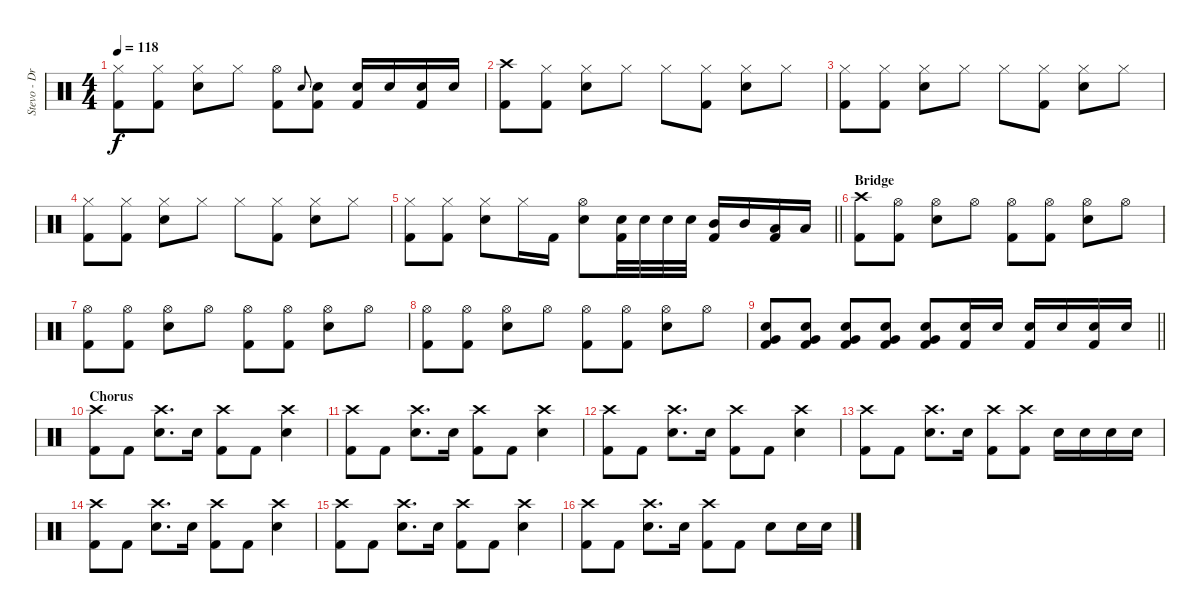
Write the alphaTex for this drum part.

\track ("Stevo - Drums" "Stevo - Dr") {instrument percussion}
\staff {score}
\articulation defaults
\ts (4 4)
\tempo 118
\clef neutral
\ks c
("Hi-Hat (closed)" "Kick (hit) 2").8{dy f} ("Hi-Hat (closed)" "Kick (hit) 2").8 ("Hi-Hat (closed)" "Snare (hit) 2").8 "Hi-Hat (closed)".8 ("Hi-Hat (open)" "Kick (hit) 2").8 "Snare (hit) 2".8{gr onbeat} ("Snare (hit) 2" "Kick (hit) 2").8 ("Snare (hit) 2" "Kick (hit) 2").16 "Snare (hit) 2".16 ("Snare (hit) 2" "Kick (hit) 2").16 "Snare (hit) 2".16 |
("Crash high (hit)" "Kick (hit) 2").8 ("Hi-Hat (closed)" "Kick (hit) 2").8 ("Hi-Hat (closed)" "Snare (hit) 2").8 "Hi-Hat (closed)".8 "Hi-Hat (closed)".8 ("Hi-Hat (closed)" "Kick (hit) 2").8 ("Hi-Hat (closed)" "Snare (hit) 2").8 "Hi-Hat (closed)".8 |
("Hi-Hat (closed)" "Kick (hit) 2").8 ("Hi-Hat (closed)" "Kick (hit) 2").8 ("Hi-Hat (closed)" "Snare (hit) 2").8 "Hi-Hat (closed)".8 "Hi-Hat (closed)".8 ("Hi-Hat (closed)" "Kick (hit) 2").8 ("Hi-Hat (closed)" "Snare (hit) 2").8 "Hi-Hat (closed)".8 |
("Hi-Hat (closed)" "Kick (hit) 2").8 ("Hi-Hat (closed)" "Kick (hit) 2").8 ("Hi-Hat (closed)" "Snare (hit) 2").8 "Hi-Hat (closed)".8 "Hi-Hat (closed)".8 ("Hi-Hat (closed)" "Kick (hit) 2").8 ("Hi-Hat (closed)" "Snare (hit) 2").8 "Hi-Hat (closed)".8 |
\barLineRight lightlight
("Hi-Hat (closed)" "Kick (hit) 2").8 ("Hi-Hat (closed)" "Kick (hit) 2").8 ("Hi-Hat (closed)" "Snare (hit) 2").8 "Hi-Hat (closed)".16 "Kick (hit) 2".16 ("Hi-Hat (open)" "Snare (hit) 2").8 ("Snare (hit) 2" "Kick (hit) 2").32 "Snare (hit) 2".32 "Snare (hit) 2".32 "Snare (hit) 2".32 ("Mid Tom (hit)" "Kick (hit) 2").16 "Mid Tom (hit)".16 ("Low Tom (hit)" "Kick (hit) 2").16 "Low Tom (hit)".16 |
\section ("" "Bridge")
("Crash high (hit)" "Kick (hit) 2").8 ("Hi-Hat (open)" "Kick (hit) 2").8 ("Hi-Hat (open)" "Snare (hit) 2").8 "Hi-Hat (open)".8 ("Hi-Hat (open)" "Kick (hit) 2").8 ("Hi-Hat (open)" "Kick (hit) 2").8 ("Hi-Hat (open)" "Snare (hit) 2").8 "Hi-Hat (open)".8 |
("Hi-Hat (open)" "Kick (hit) 2").8 ("Hi-Hat (open)" "Kick (hit) 2").8 ("Hi-Hat (open)" "Snare (hit) 2").8 "Hi-Hat (open)".8 ("Hi-Hat (open)" "Kick (hit) 2").8 ("Hi-Hat (open)" "Kick (hit) 2").8 ("Hi-Hat (open)" "Snare (hit) 2").8 "Hi-Hat (open)".8 |
("Hi-Hat (open)" "Kick (hit) 2").8 ("Hi-Hat (open)" "Kick (hit) 2").8 ("Hi-Hat (open)" "Snare (hit) 2").8 "Hi-Hat (open)".8 ("Hi-Hat (open)" "Kick (hit) 2").8 ("Hi-Hat (open)" "Kick (hit) 2").8 ("Hi-Hat (open)" "Snare (hit) 2").8 "Hi-Hat (open)".8 |
\barLineRight lightlight
("Snare (hit) 2" "Very Low Tom (hit)" "Kick (hit) 2").8 ("Snare (hit) 2" "Very Low Tom (hit)" "Kick (hit) 2").8 ("Snare (hit) 2" "Very Low Tom (hit)" "Kick (hit) 2").8 ("Snare (hit) 2" "Very Low Tom (hit)" "Kick (hit) 2").8 ("Snare (hit) 2" "Very Low Tom (hit)" "Kick (hit) 2").8 ("Snare (hit) 2" "Kick (hit) 2").16 "Snare (hit) 2".16 ("Snare (hit) 2" "Kick (hit) 2").16 "Snare (hit) 2".16 ("Snare (hit) 2" "Kick (hit) 2").16 "Snare (hit) 2".16 |
\section ("" "Chorus")
("Crash high (hit)" "Kick (hit) 2").8 "Kick (hit) 2".8 ("Crash high (hit)" "Snare (hit) 2").8{d} "Snare (hit) 2".16 ("Crash high (hit)" "Kick (hit) 2").8 "Kick (hit) 2".8 ("Crash high (hit)" "Snare (hit) 2").4 |
("Crash high (hit)" "Kick (hit) 2").8 "Kick (hit) 2".8 ("Crash high (hit)" "Snare (hit) 2").8{d} "Snare (hit) 2".16 ("Crash high (hit)" "Kick (hit) 2").8 "Kick (hit) 2".8 ("Crash high (hit)" "Snare (hit) 2").4 |
("Crash high (hit)" "Kick (hit) 2").8 "Kick (hit) 2".8 ("Crash high (hit)" "Snare (hit) 2").8{d} "Snare (hit) 2".16 ("Crash high (hit)" "Kick (hit) 2").8 "Kick (hit) 2".8 ("Crash high (hit)" "Snare (hit) 2").4 |
("Crash high (hit)" "Kick (hit) 2").8 "Kick (hit) 2".8 ("Crash high (hit)" "Snare (hit) 2").8{d} "Snare (hit) 2".16 ("Crash high (hit)" "Kick (hit) 2").8 ("Crash high (hit)" "Kick (hit) 2").8 "Snare (hit) 2".16 "Snare (hit) 2".16 "Snare (hit) 2".16 "Snare (hit) 2".16 |
("Crash high (hit)" "Kick (hit) 2").8 "Kick (hit) 2".8 ("Crash high (hit)" "Snare (hit) 2").8{d} "Snare (hit) 2".16 ("Crash high (hit)" "Kick (hit) 2").8 "Kick (hit) 2".8 ("Crash high (hit)" "Snare (hit) 2").4 |
("Crash high (hit)" "Kick (hit) 2").8 "Kick (hit) 2".8 ("Crash high (hit)" "Snare (hit) 2").8{d} "Snare (hit) 2".16 ("Crash high (hit)" "Kick (hit) 2").8 "Kick (hit) 2".8 ("Crash high (hit)" "Snare (hit) 2").4 |
("Crash high (hit)" "Kick (hit) 2").8 "Kick (hit) 2".8 ("Crash high (hit)" "Snare (hit) 2").8{d} "Snare (hit) 2".16 ("Crash high (hit)" "Kick (hit) 2").8 "Kick (hit) 2".8 "Snare (hit) 2".8 "Snare (hit) 2".16 "Snare (hit) 2".16
